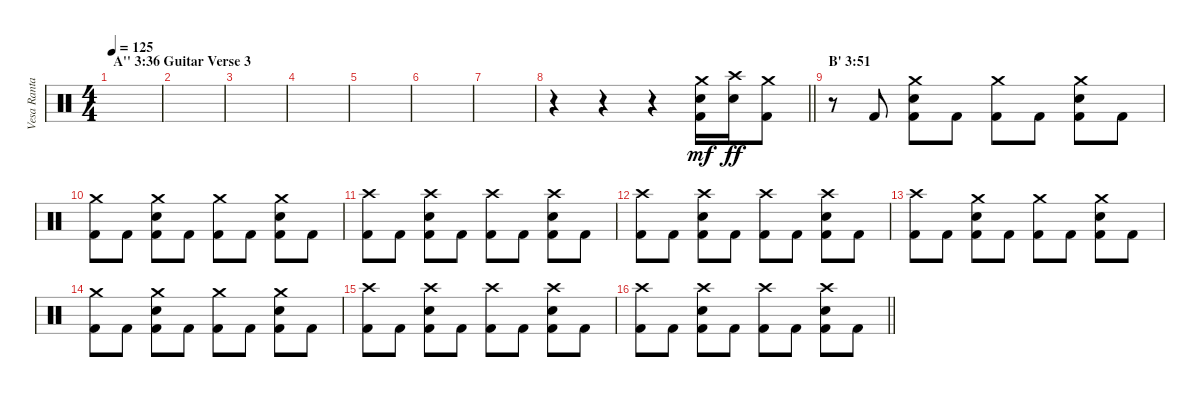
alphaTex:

\track ("Vesa Ranta (drums)" "Vesa Ranta") {instrument percussion}
\staff {score}
\articulation defaults
\ts (4 4)
\section ("" "A'' 3:36 Guitar Verse 3")
\tempo 125
\clef neutral
\ks c
|
|
|
|
|
|
|
\barLineRight lightlight
r.4 r.4 r.4 ("Crash medium (hit)" "Electric Snare (hit)" "Kick (hit) 2").16{dy mf} ("Crash high (hit)" "Electric Snare (hit)").16{dy ff} ("Crash medium (hit)" "Kick (hit) 2").8 |
\section ("" "B' 3:51")
r.8 "Kick (hit) 2".8 ("Crash medium (hit)" "Electric Snare (hit)" "Kick (hit) 2").8 "Kick (hit) 2".8 ("Crash medium (hit)" "Kick (hit) 2").8 "Kick (hit) 2".8 ("Crash medium (hit)" "Electric Snare (hit)" "Kick (hit) 2").8 "Kick (hit) 2".8 |
("Crash medium (hit)" "Kick (hit) 2").8 "Kick (hit) 2".8 ("Crash medium (hit)" "Electric Snare (hit)" "Kick (hit) 2").8 "Kick (hit) 2".8 ("Crash medium (hit)" "Kick (hit) 2").8 "Kick (hit) 2".8 ("Crash medium (hit)" "Electric Snare (hit)" "Kick (hit) 2").8 "Kick (hit) 2".8 |
("Crash high (hit)" "Kick (hit) 2").8 "Kick (hit) 2".8 ("Crash high (hit)" "Electric Snare (hit)" "Kick (hit) 2").8 "Kick (hit) 2".8 ("Crash high (hit)" "Kick (hit) 2").8 "Kick (hit) 2".8 ("Crash high (hit)" "Electric Snare (hit)" "Kick (hit) 2").8 "Kick (hit) 2".8 |
("Crash high (hit)" "Kick (hit) 2").8 "Kick (hit) 2".8 ("Crash high (hit)" "Electric Snare (hit)" "Kick (hit) 2").8 "Kick (hit) 2".8 ("Crash high (hit)" "Kick (hit) 2").8 "Kick (hit) 2".8 ("Crash high (hit)" "Electric Snare (hit)" "Kick (hit) 2").8 "Kick (hit) 2".8 |
("Crash high (hit)" "Kick (hit) 2").8 "Kick (hit) 2".8 ("Crash medium (hit)" "Electric Snare (hit)" "Kick (hit) 2").8 "Kick (hit) 2".8 ("Crash medium (hit)" "Kick (hit) 2").8 "Kick (hit) 2".8 ("Crash medium (hit)" "Electric Snare (hit)" "Kick (hit) 2").8 "Kick (hit) 2".8 |
("Crash medium (hit)" "Kick (hit) 2").8 "Kick (hit) 2".8 ("Crash medium (hit)" "Electric Snare (hit)" "Kick (hit) 2").8 "Kick (hit) 2".8 ("Crash medium (hit)" "Kick (hit) 2").8 "Kick (hit) 2".8 ("Crash medium (hit)" "Electric Snare (hit)" "Kick (hit) 2").8 "Kick (hit) 2".8 |
("Crash high (hit)" "Kick (hit) 2").8 "Kick (hit) 2".8 ("Crash high (hit)" "Electric Snare (hit)" "Kick (hit) 2").8 "Kick (hit) 2".8 ("Crash high (hit)" "Kick (hit) 2").8 "Kick (hit) 2".8 ("Crash high (hit)" "Electric Snare (hit)" "Kick (hit) 2").8 "Kick (hit) 2".8 |
\barLineRight lightlight
("Crash high (hit)" "Kick (hit) 2").8 "Kick (hit) 2".8 ("Crash high (hit)" "Electric Snare (hit)" "Kick (hit) 2").8 "Kick (hit) 2".8 ("Crash high (hit)" "Kick (hit) 2").8 "Kick (hit) 2".8 ("Crash high (hit)" "Electric Snare (hit)" "Kick (hit) 2").8 "Kick (hit) 2".8
